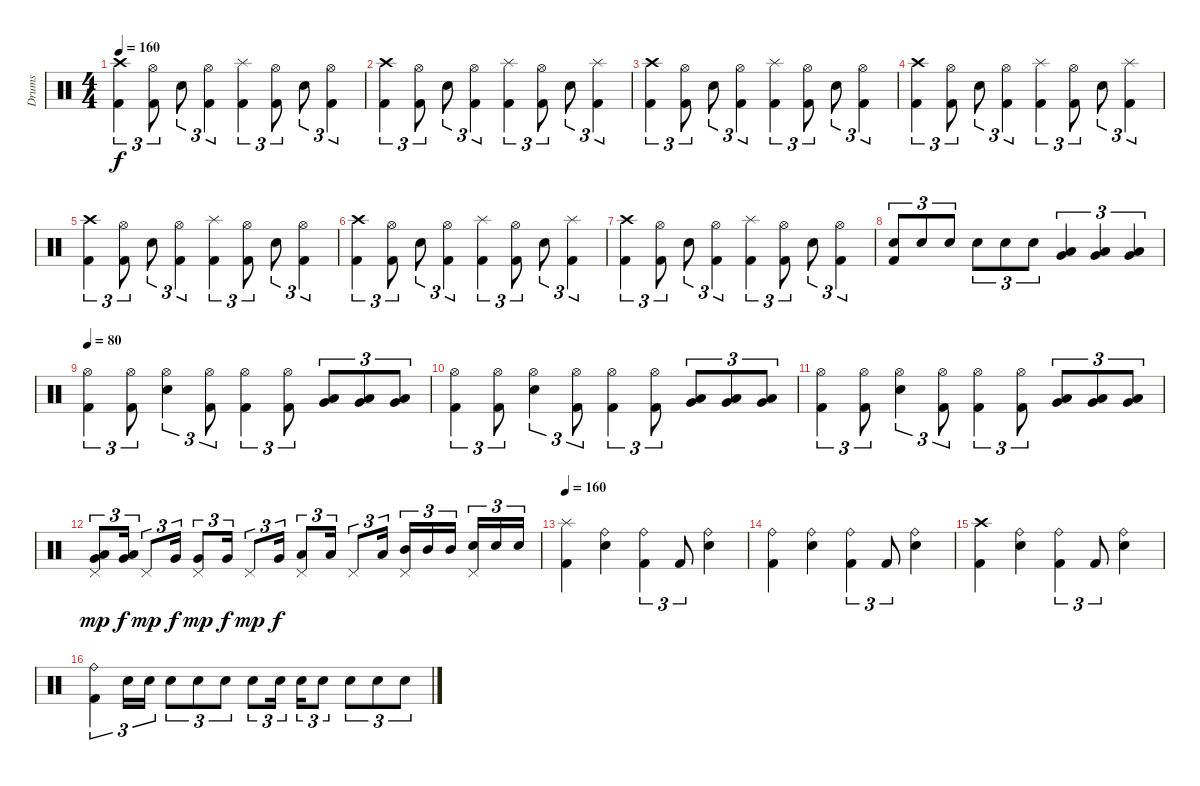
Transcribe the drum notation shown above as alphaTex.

\track ("Drums" "Drums") {instrument percussion}
\staff {score}
\articulation defaults
\ts (4 4)
\tempo 160
\clef neutral
\ks c
("Crash high (hit)" "Kick (hit) 2").4{tu (3 2) dy f} ("Hi-Hat (open)" "Kick (hit) 2").8{tu (3 2)} "Snare (hit) 2".8{tu (3 2)} ("Hi-Hat (open)" "Kick (hit) 2").4{tu (3 2)} ("Splash (hit)" "Kick (hit) 2").4{tu (3 2)} ("Hi-Hat (open)" "Kick (hit) 2").8{tu (3 2)} "Snare (hit) 2".8{tu (3 2)} ("Hi-Hat (open)" "Kick (hit) 2").4{tu (3 2)} |
("Crash high (hit)" "Kick (hit) 2").4{tu (3 2)} ("Hi-Hat (open)" "Kick (hit) 2").8{tu (3 2)} "Snare (hit) 2".8{tu (3 2)} ("Hi-Hat (open)" "Kick (hit) 2").4{tu (3 2)} ("Splash (hit)" "Kick (hit) 2").4{tu (3 2)} ("Hi-Hat (open)" "Kick (hit) 2").8{tu (3 2)} "Snare (hit) 2".8{tu (3 2)} ("Splash (hit)" "Kick (hit) 2").4{tu (3 2)} |
("Crash high (hit)" "Kick (hit) 2").4{tu (3 2)} ("Hi-Hat (open)" "Kick (hit) 2").8{tu (3 2)} "Snare (hit) 2".8{tu (3 2)} ("Hi-Hat (open)" "Kick (hit) 2").4{tu (3 2)} ("Splash (hit)" "Kick (hit) 2").4{tu (3 2)} ("Hi-Hat (open)" "Kick (hit) 2").8{tu (3 2)} "Snare (hit) 2".8{tu (3 2)} ("Hi-Hat (open)" "Kick (hit) 2").4{tu (3 2)} |
("Crash high (hit)" "Kick (hit) 2").4{tu (3 2)} ("Hi-Hat (open)" "Kick (hit) 2").8{tu (3 2)} "Snare (hit) 2".8{tu (3 2)} ("Hi-Hat (open)" "Kick (hit) 2").4{tu (3 2)} ("Splash (hit)" "Kick (hit) 2").4{tu (3 2)} ("Hi-Hat (open)" "Kick (hit) 2").8{tu (3 2)} "Snare (hit) 2".8{tu (3 2)} ("Splash (hit)" "Kick (hit) 2").4{tu (3 2)} |
("Crash high (hit)" "Kick (hit) 2").4{tu (3 2)} ("Hi-Hat (open)" "Kick (hit) 2").8{tu (3 2)} "Snare (hit) 2".8{tu (3 2)} ("Hi-Hat (open)" "Kick (hit) 2").4{tu (3 2)} ("Splash (hit)" "Kick (hit) 2").4{tu (3 2)} ("Hi-Hat (open)" "Kick (hit) 2").8{tu (3 2)} "Snare (hit) 2".8{tu (3 2)} ("Hi-Hat (open)" "Kick (hit) 2").4{tu (3 2)} |
("Crash high (hit)" "Kick (hit) 2").4{tu (3 2)} ("Hi-Hat (open)" "Kick (hit) 2").8{tu (3 2)} "Snare (hit) 2".8{tu (3 2)} ("Hi-Hat (open)" "Kick (hit) 2").4{tu (3 2)} ("Splash (hit)" "Kick (hit) 2").4{tu (3 2)} ("Hi-Hat (open)" "Kick (hit) 2").8{tu (3 2)} "Snare (hit) 2".8{tu (3 2)} ("Splash (hit)" "Kick (hit) 2").4{tu (3 2)} |
("Crash high (hit)" "Kick (hit) 2").4{tu (3 2)} ("Hi-Hat (open)" "Kick (hit) 2").8{tu (3 2)} "Snare (hit) 2".8{tu (3 2)} ("Hi-Hat (open)" "Kick (hit) 2").4{tu (3 2)} ("Splash (hit)" "Kick (hit) 2").4{tu (3 2)} ("Hi-Hat (open)" "Kick (hit) 2").8{tu (3 2)} "Snare (hit) 2".8{tu (3 2)} ("Hi-Hat (open)" "Kick (hit) 2").4{tu (3 2)} |
("Snare (hit) 2" "Kick (hit) 2").8{tu (3 2)} "Snare (hit) 2".8{tu (3 2)} "Snare (hit) 2".8{tu (3 2)} "Snare (hit) 2".8{tu (3 2)} "Snare (hit) 2".8{tu (3 2)} "Snare (hit) 2".8{tu (3 2)} ("Very Low Tom (hit)" "Low Floor Tom (hit)").4{tu (3 2)} ("Very Low Tom (hit)" "Low Floor Tom (hit)").4{tu (3 2)} ("Very Low Tom (hit)" "Low Floor Tom (hit)").4{tu (3 2)} |
\tempo 80
("Hi-Hat (open)" "Kick (hit) 2").4{tu (3 2)} ("Hi-Hat (open)" "Kick (hit) 2").8{tu (3 2)} ("Hi-Hat (open)" "Snare (hit) 2").4{tu (3 2)} ("Hi-Hat (open)" "Kick (hit) 2").8{tu (3 2)} ("Hi-Hat (open)" "Kick (hit) 2").4{tu (3 2)} ("Hi-Hat (open)" "Kick (hit) 2").8{tu (3 2)} ("Very Low Tom (hit)" "Low Floor Tom (hit)").8{tu (3 2)} ("Very Low Tom (hit)" "Low Floor Tom (hit)").8{tu (3 2)} ("Very Low Tom (hit)" "Low Floor Tom (hit)").8{tu (3 2)} |
("Hi-Hat (open)" "Kick (hit) 2").4{tu (3 2)} ("Hi-Hat (open)" "Kick (hit) 2").8{tu (3 2)} ("Hi-Hat (open)" "Snare (hit) 2").4{tu (3 2)} ("Hi-Hat (open)" "Kick (hit) 2").8{tu (3 2)} ("Hi-Hat (open)" "Kick (hit) 2").4{tu (3 2)} ("Hi-Hat (open)" "Kick (hit) 2").8{tu (3 2)} ("Very Low Tom (hit)" "Low Floor Tom (hit)").8{tu (3 2)} ("Very Low Tom (hit)" "Low Floor Tom (hit)").8{tu (3 2)} ("Very Low Tom (hit)" "Low Floor Tom (hit)").8{tu (3 2)} |
("Hi-Hat (open)" "Kick (hit) 2").4{tu (3 2)} ("Hi-Hat (open)" "Kick (hit) 2").8{tu (3 2)} ("Hi-Hat (open)" "Snare (hit) 2").4{tu (3 2)} ("Hi-Hat (open)" "Kick (hit) 2").8{tu (3 2)} ("Hi-Hat (open)" "Kick (hit) 2").4{tu (3 2)} ("Hi-Hat (open)" "Kick (hit) 2").8{tu (3 2)} ("Very Low Tom (hit)" "Low Floor Tom (hit)").8{tu (3 2)} ("Very Low Tom (hit)" "Low Floor Tom (hit)").8{tu (3 2)} ("Very Low Tom (hit)" "Low Floor Tom (hit)").8{tu (3 2)} |
("Very Low Tom (hit)" "Low Floor Tom (hit)" "Pedal Hi-Hat (hit)").8{tu (3 2) dy mp} ("Very Low Tom (hit)" "Low Floor Tom (hit)").16{tu (3 2) dy f} "Pedal Hi-Hat (hit)".8{tu (3 2) dy mp} "Very Low Tom (hit)".16{tu (3 2) dy f} ("Very Low Tom (hit)" "Pedal Hi-Hat (hit)").8{tu (3 2) dy mp} "Very Low Tom (hit)".16{tu (3 2) dy f} "Pedal Hi-Hat (hit)".8{tu (3 2) dy mp} "Very Low Tom (hit)".16{tu (3 2) dy f} ("Low Tom (hit)" "Pedal Hi-Hat (hit)").8{tu (3 2)} "Low Tom (hit)".16{tu (3 2)} "Pedal Hi-Hat (hit)".8{tu (3 2)} "Low Tom (hit)".16{tu (3 2)} ("Mid Tom (hit)" "Pedal Hi-Hat (hit)").16{tu (3 2)} "Mid Tom (hit)".16{tu (3 2)} "Mid Tom (hit)".16{tu (3 2)} ("Snare (hit) 2" "Pedal Hi-Hat (hit)").16{tu (3 2)} "Snare (hit) 2".16{tu (3 2)} "Snare (hit) 2".16{tu (3 2)} |
\tempo 160
("Splash (hit)" "Kick (hit) 2").4 ("Ride (bell)" "Snare (hit) 2").4 ("Ride (bell)" "Kick (hit) 2").4{tu (3 2)} "Kick (hit) 2".8{tu (3 2)} ("Ride (bell)" "Snare (hit) 2").4 |
("Ride (bell)" "Kick (hit) 2").4 ("Ride (bell)" "Snare (hit) 2").4 ("Ride (bell)" "Kick (hit) 2").4{tu (3 2)} "Kick (hit) 2".8{tu (3 2)} ("Ride (bell)" "Snare (hit) 2").4 |
("Crash high (hit)" "Kick (hit) 2").4 ("Ride (bell)" "Snare (hit) 2").4 ("Ride (bell)" "Kick (hit) 2").4{tu (3 2)} "Kick (hit) 2".8{tu (3 2)} ("Ride (bell)" "Snare (hit) 2").4 |
("Ride (bell)" "Kick (hit) 2").4{tu (3 2)} "Snare (hit) 2".16{tu (3 2)} "Snare (hit) 2".16{tu (3 2)} "Snare (hit) 2".8{tu (3 2)} "Snare (hit) 2".8{tu (3 2)} "Snare (hit) 2".8{tu (3 2)} "Snare (hit) 2".8{tu (3 2)} "Snare (hit) 2".16{tu (3 2)} "Snare (hit) 2".16{tu (3 2)} "Snare (hit) 2".8{tu (3 2)} "Snare (hit) 2".8{tu (3 2)} "Snare (hit) 2".8{tu (3 2)} "Snare (hit) 2".8{tu (3 2)}
